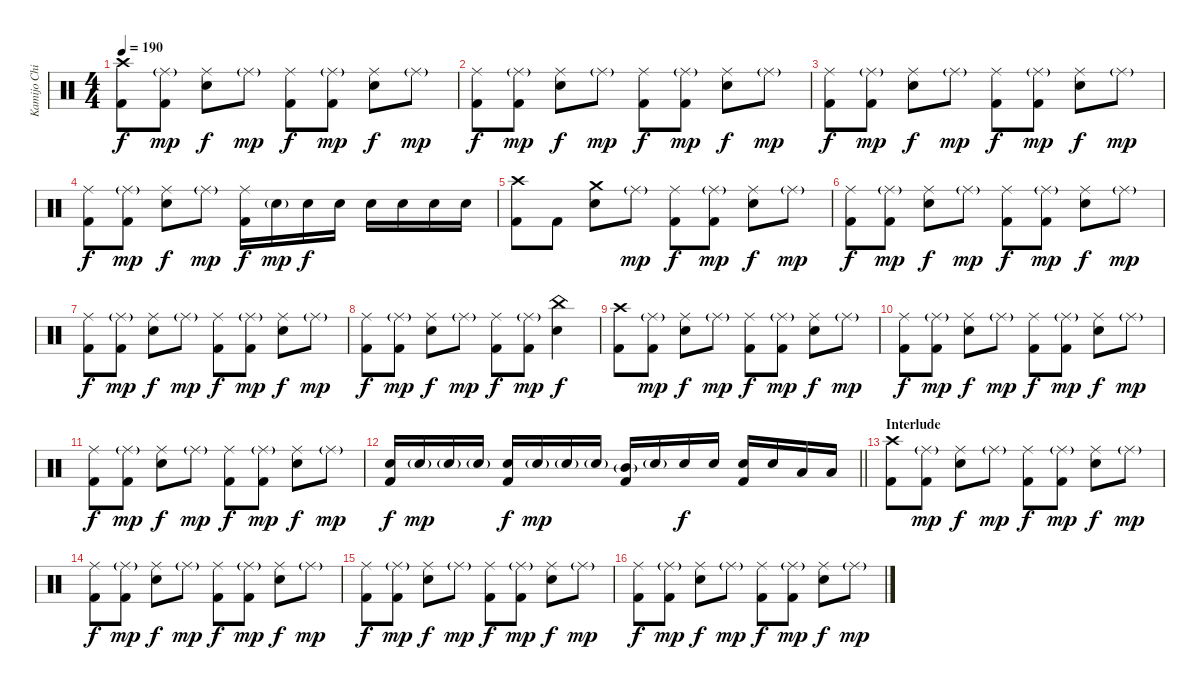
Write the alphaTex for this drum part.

\track ("Kamijo Chihiro" "Kamijo Chi") {instrument percussion}
\staff {score}
\articulation defaults
\ts (4 4)
\tempo 190
\clef neutral
\ks c
("Crash high (hit)" "Kick (hit) 2").8{dy f} ("Ride (middle)"{g} "Kick (hit) 2").8{dy mp} ("Ride (middle)" "Snare (hit) 2").8{dy f} "Ride (middle)"{g}.8{dy mp} ("Ride (middle)" "Kick (hit) 2").8{dy f} ("Ride (middle)"{g} "Kick (hit) 2").8{dy mp} ("Ride (middle)" "Snare (hit) 2").8{dy f} "Ride (middle)"{g}.8{dy mp} |
("Ride (middle)" "Kick (hit) 2").8{dy f} ("Ride (middle)"{g} "Kick (hit) 2").8{dy mp} ("Ride (middle)" "Snare (hit) 2").8{dy f} "Ride (middle)"{g}.8{dy mp} ("Ride (middle)" "Kick (hit) 2").8{dy f} ("Ride (middle)"{g} "Kick (hit) 2").8{dy mp} ("Ride (middle)" "Snare (hit) 2").8{dy f} "Ride (middle)"{g}.8{dy mp} |
("Ride (middle)" "Kick (hit) 2").8{dy f} ("Ride (middle)"{g} "Kick (hit) 2").8{dy mp} ("Ride (middle)" "Snare (hit) 2").8{dy f} "Ride (middle)"{g}.8{dy mp} ("Ride (middle)" "Kick (hit) 2").8{dy f} ("Ride (middle)"{g} "Kick (hit) 2").8{dy mp} ("Ride (middle)" "Snare (hit) 2").8{dy f} "Ride (middle)"{g}.8{dy mp} |
("Ride (middle)" "Kick (hit) 2").8{dy f} ("Ride (middle)"{g} "Kick (hit) 2").8{dy mp} ("Ride (middle)" "Snare (hit) 2").8{dy f} "Ride (middle)"{g}.8{dy mp} ("Ride (middle)" "Kick (hit) 2").16{dy f} "Snare (hit) 2"{g}.16{dy mp} "Snare (hit) 2".16{dy f} "Snare (hit) 2".16 "Snare (hit) 2".16 "Snare (hit) 2".16 "Snare (hit) 2".16 "Snare (hit) 2".16 |
("Crash high (hit)" "Kick (hit) 2").8 "Kick (hit) 2".8 ("Crash medium (hit)" "Snare (hit) 2").8 "Ride (middle)"{g}.8{dy mp} ("Ride (middle)" "Kick (hit) 2").8{dy f} ("Ride (middle)"{g} "Kick (hit) 2").8{dy mp} ("Ride (middle)" "Snare (hit) 2").8{dy f} "Ride (middle)"{g}.8{dy mp} |
("Ride (middle)" "Kick (hit) 2").8{dy f} ("Ride (middle)"{g} "Kick (hit) 2").8{dy mp} ("Ride (middle)" "Snare (hit) 2").8{dy f} "Ride (middle)"{g}.8{dy mp} ("Ride (middle)" "Kick (hit) 2").8{dy f} ("Ride (middle)"{g} "Kick (hit) 2").8{dy mp} ("Ride (middle)" "Snare (hit) 2").8{dy f} "Ride (middle)"{g}.8{dy mp} |
("Ride (middle)" "Kick (hit) 2").8{dy f} ("Ride (middle)"{g} "Kick (hit) 2").8{dy mp} ("Ride (middle)" "Snare (hit) 2").8{dy f} "Ride (middle)"{g}.8{dy mp} ("Ride (middle)" "Kick (hit) 2").8{dy f} ("Ride (middle)"{g} "Kick (hit) 2").8{dy mp} ("Ride (middle)" "Snare (hit) 2").8{dy f} "Ride (middle)"{g}.8{dy mp} |
("Ride (middle)" "Kick (hit) 2").8{dy f} ("Ride (middle)"{g} "Kick (hit) 2").8{dy mp} ("Ride (middle)" "Snare (hit) 2").8{dy f} "Ride (middle)"{g}.8{dy mp} ("Ride (middle)" "Kick (hit) 2").8{dy f} ("Ride (middle)"{g} "Kick (hit) 2").8{dy mp} ("China (hit)" "Snare (hit) 2").4{dy f} |
("Crash high (hit)" "Kick (hit) 2").8 ("Ride (middle)"{g} "Kick (hit) 2").8{dy mp} ("Ride (middle)" "Snare (hit) 2").8{dy f} "Ride (middle)"{g}.8{dy mp} ("Ride (middle)" "Kick (hit) 2").8{dy f} ("Ride (middle)"{g} "Kick (hit) 2").8{dy mp} ("Ride (middle)" "Snare (hit) 2").8{dy f} "Ride (middle)"{g}.8{dy mp} |
("Ride (middle)" "Kick (hit) 2").8{dy f} ("Ride (middle)"{g} "Kick (hit) 2").8{dy mp} ("Ride (middle)" "Snare (hit) 2").8{dy f} "Ride (middle)"{g}.8{dy mp} ("Ride (middle)" "Kick (hit) 2").8{dy f} ("Ride (middle)"{g} "Kick (hit) 2").8{dy mp} ("Ride (middle)" "Snare (hit) 2").8{dy f} "Ride (middle)"{g}.8{dy mp} |
("Ride (middle)" "Kick (hit) 2").8{dy f} ("Ride (middle)"{g} "Kick (hit) 2").8{dy mp} ("Ride (middle)" "Snare (hit) 2").8{dy f} "Ride (middle)"{g}.8{dy mp} ("Ride (middle)" "Kick (hit) 2").8{dy f} ("Ride (middle)"{g} "Kick (hit) 2").8{dy mp} ("Ride (middle)" "Snare (hit) 2").8{dy f} "Ride (middle)"{g}.8{dy mp} |
\barLineRight lightlight
("Snare (hit) 2" "Kick (hit) 2").16{dy f} "Snare (hit) 2"{g}.16{dy mp} "Snare (hit) 2"{g}.16 "Snare (hit) 2"{g}.16 ("Snare (hit) 2" "Kick (hit) 2").16{dy f} "Snare (hit) 2"{g}.16{dy mp} "Snare (hit) 2"{g}.16 "Snare (hit) 2"{g}.16 ("Mid Tom (hit)"{g} "Kick (hit) 2").16 "Snare (hit) 2"{g}.16 "Snare (hit) 2".16{dy f} "Snare (hit) 2".16 ("Snare (hit) 2" "Kick (hit) 2").16 "Snare (hit) 2".16 "Low Tom (hit)".16 "Low Tom (hit)".16 |
\section ("" "Interlude")
("Crash high (hit)" "Kick (hit) 2").8 ("Ride (middle)"{g} "Kick (hit) 2").8{dy mp} ("Ride (middle)" "Snare (hit) 2").8{dy f} "Ride (middle)"{g}.8{dy mp} ("Ride (middle)" "Kick (hit) 2").8{dy f} ("Ride (middle)"{g} "Kick (hit) 2").8{dy mp} ("Ride (middle)" "Snare (hit) 2").8{dy f} "Ride (middle)"{g}.8{dy mp} |
("Ride (middle)" "Kick (hit) 2").8{dy f} ("Ride (middle)"{g} "Kick (hit) 2").8{dy mp} ("Ride (middle)" "Snare (hit) 2").8{dy f} "Ride (middle)"{g}.8{dy mp} ("Ride (middle)" "Kick (hit) 2").8{dy f} ("Ride (middle)"{g} "Kick (hit) 2").8{dy mp} ("Ride (middle)" "Snare (hit) 2").8{dy f} "Ride (middle)"{g}.8{dy mp} |
("Ride (middle)" "Kick (hit) 2").8{dy f} ("Ride (middle)"{g} "Kick (hit) 2").8{dy mp} ("Ride (middle)" "Snare (hit) 2").8{dy f} "Ride (middle)"{g}.8{dy mp} ("Ride (middle)" "Kick (hit) 2").8{dy f} ("Ride (middle)"{g} "Kick (hit) 2").8{dy mp} ("Ride (middle)" "Snare (hit) 2").8{dy f} "Ride (middle)"{g}.8{dy mp} |
("Ride (middle)" "Kick (hit) 2").8{dy f} ("Ride (middle)"{g} "Kick (hit) 2").8{dy mp} ("Ride (middle)" "Snare (hit) 2").8{dy f} "Ride (middle)"{g}.8{dy mp} ("Ride (middle)" "Kick (hit) 2").8{dy f} ("Ride (middle)"{g} "Kick (hit) 2").8{dy mp} ("Ride (middle)" "Snare (hit) 2").8{dy f} "Ride (middle)"{g}.8{dy mp}
